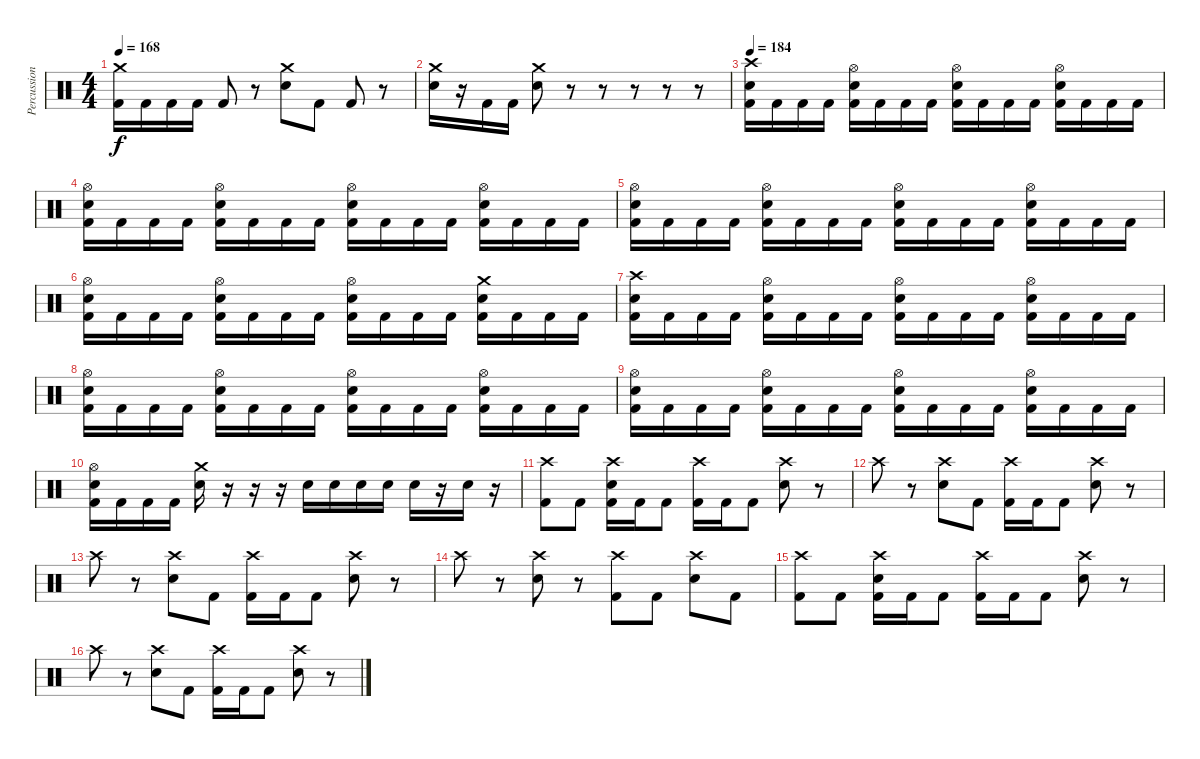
\track ("Percussion" "Percussion") {instrument percussion}
\staff {score}
\articulation defaults
\ts (4 4)
\tempo 168
\clef neutral
\ks c
("Crash medium (hit)" "Kick (hit) 2").16{dy f} "Kick (hit) 2".16 "Kick (hit) 2".16 "Kick (hit) 2".16 "Kick (hit) 2".8 r.8 ("Crash medium (hit)" "Snare (hit) 2").8 "Kick (hit) 2".8 "Kick (hit) 2".8 r.8 |
("Crash medium (hit)" "Snare (hit) 2").16 r.16 "Kick (hit) 2".16 "Kick (hit) 2".16 ("Crash medium (hit)" "Snare (hit) 2").8 r.8{volume 0} r.8 r.8 r.8 r.8 |
\tempo 184
("Crash high (hit)" "Snare (hit) 2" "Kick (hit) 2").16{volume 16} "Kick (hit) 2".16 "Kick (hit) 2".16 "Kick (hit) 2".16 ("Hi-Hat (open)" "Snare (hit) 2" "Kick (hit) 2").16 "Kick (hit) 2".16 "Kick (hit) 2".16 "Kick (hit) 2".16 ("Hi-Hat (open)" "Snare (hit) 2" "Kick (hit) 2").16 "Kick (hit) 2".16 "Kick (hit) 2".16 "Kick (hit) 2".16 ("Hi-Hat (open)" "Snare (hit) 2" "Kick (hit) 2").16 "Kick (hit) 2".16 "Kick (hit) 2".16 "Kick (hit) 2".16 |
("Hi-Hat (open)" "Snare (hit) 2" "Kick (hit) 2").16 "Kick (hit) 2".16 "Kick (hit) 2".16 "Kick (hit) 2".16 ("Hi-Hat (open)" "Snare (hit) 2" "Kick (hit) 2").16 "Kick (hit) 2".16 "Kick (hit) 2".16 "Kick (hit) 2".16 ("Hi-Hat (open)" "Snare (hit) 2" "Kick (hit) 2").16 "Kick (hit) 2".16 "Kick (hit) 2".16 "Kick (hit) 2".16 ("Hi-Hat (open)" "Snare (hit) 2" "Kick (hit) 2").16 "Kick (hit) 2".16 "Kick (hit) 2".16 "Kick (hit) 2".16 |
("Hi-Hat (open)" "Snare (hit) 2" "Kick (hit) 2").16 "Kick (hit) 2".16 "Kick (hit) 2".16 "Kick (hit) 2".16 ("Hi-Hat (open)" "Snare (hit) 2" "Kick (hit) 2").16 "Kick (hit) 2".16 "Kick (hit) 2".16 "Kick (hit) 2".16 ("Hi-Hat (open)" "Snare (hit) 2" "Kick (hit) 2").16 "Kick (hit) 2".16 "Kick (hit) 2".16 "Kick (hit) 2".16 ("Hi-Hat (open)" "Snare (hit) 2" "Kick (hit) 2").16 "Kick (hit) 2".16 "Kick (hit) 2".16 "Kick (hit) 2".16 |
("Hi-Hat (open)" "Snare (hit) 2" "Kick (hit) 2").16 "Kick (hit) 2".16 "Kick (hit) 2".16 "Kick (hit) 2".16 ("Hi-Hat (open)" "Snare (hit) 2" "Kick (hit) 2").16 "Kick (hit) 2".16 "Kick (hit) 2".16 "Kick (hit) 2".16 ("Hi-Hat (open)" "Snare (hit) 2" "Kick (hit) 2").16 "Kick (hit) 2".16 "Kick (hit) 2".16 "Kick (hit) 2".16 ("Crash medium (hit)" "Snare (hit) 2" "Kick (hit) 2").16 "Kick (hit) 2".16 "Kick (hit) 2".16 "Kick (hit) 2".16 |
("Crash high (hit)" "Snare (hit) 2" "Kick (hit) 2").16 "Kick (hit) 2".16 "Kick (hit) 2".16 "Kick (hit) 2".16 ("Hi-Hat (open)" "Snare (hit) 2" "Kick (hit) 2").16 "Kick (hit) 2".16 "Kick (hit) 2".16 "Kick (hit) 2".16 ("Hi-Hat (open)" "Snare (hit) 2" "Kick (hit) 2").16 "Kick (hit) 2".16 "Kick (hit) 2".16 "Kick (hit) 2".16 ("Hi-Hat (open)" "Snare (hit) 2" "Kick (hit) 2").16 "Kick (hit) 2".16 "Kick (hit) 2".16 "Kick (hit) 2".16 |
("Hi-Hat (open)" "Snare (hit) 2" "Kick (hit) 2").16 "Kick (hit) 2".16 "Kick (hit) 2".16 "Kick (hit) 2".16 ("Hi-Hat (open)" "Snare (hit) 2" "Kick (hit) 2").16 "Kick (hit) 2".16 "Kick (hit) 2".16 "Kick (hit) 2".16 ("Hi-Hat (open)" "Snare (hit) 2" "Kick (hit) 2").16 "Kick (hit) 2".16 "Kick (hit) 2".16 "Kick (hit) 2".16 ("Hi-Hat (open)" "Snare (hit) 2" "Kick (hit) 2").16 "Kick (hit) 2".16 "Kick (hit) 2".16 "Kick (hit) 2".16 |
("Hi-Hat (open)" "Snare (hit) 2" "Kick (hit) 2").16 "Kick (hit) 2".16 "Kick (hit) 2".16 "Kick (hit) 2".16 ("Hi-Hat (open)" "Snare (hit) 2" "Kick (hit) 2").16 "Kick (hit) 2".16 "Kick (hit) 2".16 "Kick (hit) 2".16 ("Hi-Hat (open)" "Snare (hit) 2" "Kick (hit) 2").16 "Kick (hit) 2".16 "Kick (hit) 2".16 "Kick (hit) 2".16 ("Hi-Hat (open)" "Snare (hit) 2" "Kick (hit) 2").16 "Kick (hit) 2".16 "Kick (hit) 2".16 "Kick (hit) 2".16 |
("Hi-Hat (open)" "Snare (hit) 2" "Kick (hit) 2").16 "Kick (hit) 2".16 "Kick (hit) 2".16 "Kick (hit) 2".16 ("Crash medium (hit)" "Snare (hit) 2").16 r.16 r.16 r.16 "Snare (hit) 2".16 "Snare (hit) 2".16 "Snare (hit) 2".16 "Snare (hit) 2".16 "Snare (hit) 2".16 r.16 "Snare (hit) 2".16 r.16 |
("Crash high (hit)" "Kick (hit) 2").8 "Kick (hit) 2".8 ("Crash high (hit)" "Snare (hit) 2" "Kick (hit) 2").16 "Kick (hit) 2".16 "Kick (hit) 2".8 ("Crash high (hit)" "Kick (hit) 2").16 "Kick (hit) 2".16 "Kick (hit) 2".8 ("Crash high (hit)" "Snare (hit) 2").8 r.8 |
"Crash high (hit)".8 r.8 ("Crash high (hit)" "Snare (hit) 2").8 "Kick (hit) 2".8 ("Crash high (hit)" "Kick (hit) 2").16 "Kick (hit) 2".16 "Kick (hit) 2".8 ("Crash high (hit)" "Snare (hit) 2").8 r.8 |
"Crash high (hit)".8 r.8 ("Crash high (hit)" "Snare (hit) 2").8 "Kick (hit) 2".8 ("Crash high (hit)" "Kick (hit) 2").16 "Kick (hit) 2".16 "Kick (hit) 2".8 ("Crash high (hit)" "Snare (hit) 2").8 r.8 |
"Crash high (hit)".8 r.8 ("Crash high (hit)" "Snare (hit) 2").8 r.8 ("Crash high (hit)" "Kick (hit) 2").8 "Kick (hit) 2".8 ("Crash high (hit)" "Snare (hit) 2").8 "Kick (hit) 2".8 |
("Crash high (hit)" "Kick (hit) 2").8 "Kick (hit) 2".8 ("Crash high (hit)" "Snare (hit) 2" "Kick (hit) 2").16 "Kick (hit) 2".16 "Kick (hit) 2".8 ("Crash high (hit)" "Kick (hit) 2").16 "Kick (hit) 2".16 "Kick (hit) 2".8 ("Crash high (hit)" "Snare (hit) 2").8 r.8 |
"Crash high (hit)".8 r.8 ("Crash high (hit)" "Snare (hit) 2").8 "Kick (hit) 2".8 ("Crash high (hit)" "Kick (hit) 2").16 "Kick (hit) 2".16 "Kick (hit) 2".8 ("Crash high (hit)" "Snare (hit) 2").8 r.8
